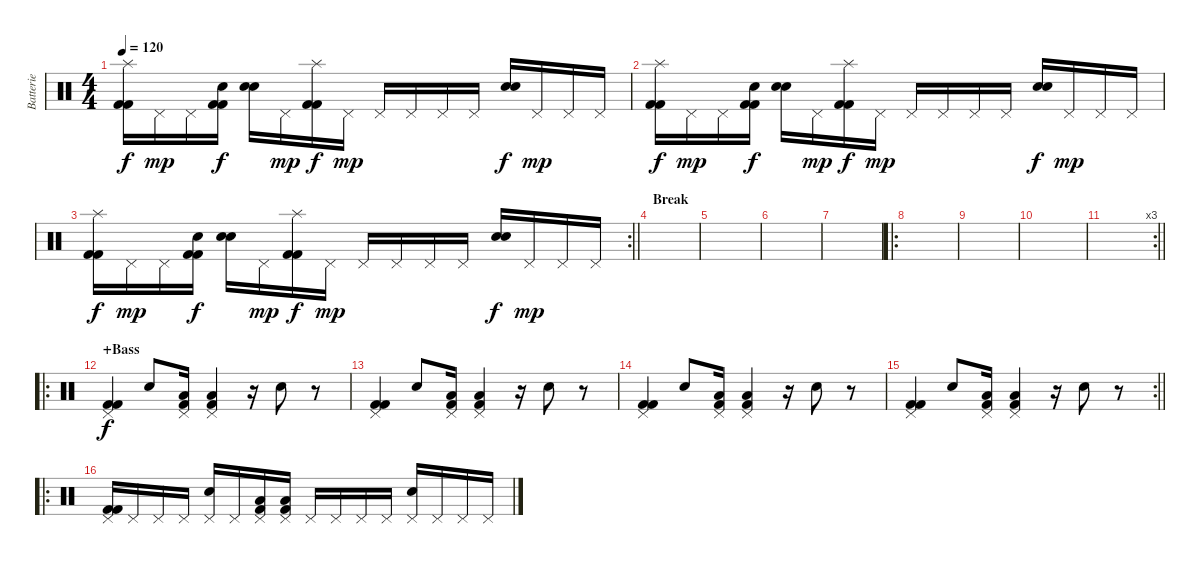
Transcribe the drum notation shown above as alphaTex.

\track ("Batterie" "Batterie") {instrument percussion}
\staff {score}
\articulation defaults
\ts (4 4)
\tempo 120
\clef neutral
\ks c
("Splash (hit)" "Kick (hit) 2" "Kick (hit) 2").16{dy f} "Pedal Hi-Hat (hit)".16{dy mp} "Pedal Hi-Hat (hit)".16 ("Electric Snare (hit)" "Kick (hit) 2" "Kick (hit) 2").16{dy f} ("Snare (hit) 2" "Hand Clap (hit)").16 "Pedal Hi-Hat (hit)".16{dy mp} ("Splash (hit)" "Kick (hit) 2" "Kick (hit) 2").16{dy f} "Pedal Hi-Hat (hit)".16{dy mp} "Pedal Hi-Hat (hit)".16 "Pedal Hi-Hat (hit)".16 "Pedal Hi-Hat (hit)".16 "Pedal Hi-Hat (hit)".16 ("Snare (hit) 2" "Hand Clap (hit)").16{dy f} "Pedal Hi-Hat (hit)".16{dy mp} "Pedal Hi-Hat (hit)".16 "Pedal Hi-Hat (hit)".16 |
("Splash (hit)" "Kick (hit) 2" "Kick (hit) 2").16{dy f} "Pedal Hi-Hat (hit)".16{dy mp} "Pedal Hi-Hat (hit)".16 ("Electric Snare (hit)" "Kick (hit) 2" "Kick (hit) 2").16{dy f} ("Snare (hit) 2" "Hand Clap (hit)").16 "Pedal Hi-Hat (hit)".16{dy mp} ("Splash (hit)" "Kick (hit) 2" "Kick (hit) 2").16{dy f} "Pedal Hi-Hat (hit)".16{dy mp} "Pedal Hi-Hat (hit)".16 "Pedal Hi-Hat (hit)".16 "Pedal Hi-Hat (hit)".16 "Pedal Hi-Hat (hit)".16 ("Snare (hit) 2" "Hand Clap (hit)").16{dy f} "Pedal Hi-Hat (hit)".16{dy mp} "Pedal Hi-Hat (hit)".16 "Pedal Hi-Hat (hit)".16 |
\rc 2
\barLineRight lightlight
("Splash (hit)" "Kick (hit) 2" "Kick (hit) 2").16{dy f} "Pedal Hi-Hat (hit)".16{dy mp} "Pedal Hi-Hat (hit)".16 ("Electric Snare (hit)" "Kick (hit) 2" "Kick (hit) 2").16{dy f} ("Snare (hit) 2" "Hand Clap (hit)").16 "Pedal Hi-Hat (hit)".16{dy mp} ("Splash (hit)" "Kick (hit) 2" "Kick (hit) 2").16{dy f} "Pedal Hi-Hat (hit)".16{dy mp} "Pedal Hi-Hat (hit)".16 "Pedal Hi-Hat (hit)".16 "Pedal Hi-Hat (hit)".16 "Pedal Hi-Hat (hit)".16 ("Snare (hit) 2" "Hand Clap (hit)").16{dy f} "Pedal Hi-Hat (hit)".16{dy mp} "Pedal Hi-Hat (hit)".16 "Pedal Hi-Hat (hit)".16 |
\section ("" "Break")
|
|
|
|
\ro
|
|
|
\rc 3
\barLineRight lightlight
|
\ro
\section ("" "+Bass")
("Pedal Hi-Hat (hit)" "Kick (hit) 2" "Kick (hit) 2").4{dy f} "Electric Snare (hit)".8 ("Pedal Hi-Hat (hit)" "Low Floor Tom (hit)" "Kick (hit) 2").16 ("Pedal Hi-Hat (hit)" "Low Floor Tom (hit)" "Kick (hit) 2").4 r.16 "Electric Snare (hit)".8 r.8 |
("Pedal Hi-Hat (hit)" "Kick (hit) 2" "Kick (hit) 2").4 "Electric Snare (hit)".8 ("Pedal Hi-Hat (hit)" "Low Floor Tom (hit)" "Kick (hit) 2").16 ("Pedal Hi-Hat (hit)" "Low Floor Tom (hit)" "Kick (hit) 2").4 r.16 "Electric Snare (hit)".8 r.8 |
("Pedal Hi-Hat (hit)" "Kick (hit) 2" "Kick (hit) 2").4 "Electric Snare (hit)".8 ("Pedal Hi-Hat (hit)" "Low Floor Tom (hit)" "Kick (hit) 2").16 ("Pedal Hi-Hat (hit)" "Low Floor Tom (hit)" "Kick (hit) 2").4 r.16 "Electric Snare (hit)".8 r.8 |
\rc 2
\barLineRight lightlight
("Pedal Hi-Hat (hit)" "Kick (hit) 2" "Kick (hit) 2").4 "Electric Snare (hit)".8 ("Pedal Hi-Hat (hit)" "Low Floor Tom (hit)" "Kick (hit) 2").16 ("Pedal Hi-Hat (hit)" "Low Floor Tom (hit)" "Kick (hit) 2").4 r.16 "Electric Snare (hit)".8 r.8 |
\ro
("Pedal Hi-Hat (hit)" "Kick (hit) 2" "Kick (hit) 2").16 "Pedal Hi-Hat (hit)".16 "Pedal Hi-Hat (hit)".16 "Pedal Hi-Hat (hit)".16 ("Pedal Hi-Hat (hit)" "Electric Snare (hit)").16 "Pedal Hi-Hat (hit)".16 ("Pedal Hi-Hat (hit)" "Low Floor Tom (hit)" "Kick (hit) 2").16 ("Pedal Hi-Hat (hit)" "Low Floor Tom (hit)" "Kick (hit) 2").16 "Pedal Hi-Hat (hit)".16 "Pedal Hi-Hat (hit)".16 "Pedal Hi-Hat (hit)".16 "Pedal Hi-Hat (hit)".16 ("Pedal Hi-Hat (hit)" "Electric Snare (hit)").16 "Pedal Hi-Hat (hit)".16 "Pedal Hi-Hat (hit)".16 "Pedal Hi-Hat (hit)".16
